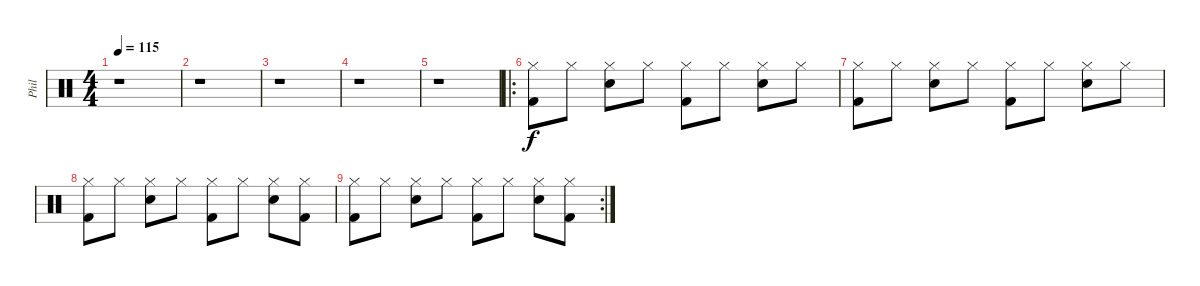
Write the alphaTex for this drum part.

\track ("Phil" "Phil") {instrument percussion}
\staff {score}
\articulation defaults
\ts (4 4)
\tempo 115
\clef neutral
\ks c
r.1{dy f} |
r.1 |
r.1 |
r.1 |
r.1 |
\ro
("Hi-Hat (closed)" "Kick (hit) 2").8 "Hi-Hat (closed)".8 ("Hi-Hat (closed)" "Snare (hit) 2").8 "Hi-Hat (closed)".8 ("Hi-Hat (closed)" "Kick (hit) 2").8 "Hi-Hat (closed)".8 ("Hi-Hat (closed)" "Snare (hit) 2").8 "Hi-Hat (closed)".8 |
("Hi-Hat (closed)" "Kick (hit) 2").8 "Hi-Hat (closed)".8 ("Hi-Hat (closed)" "Snare (hit) 2").8 "Hi-Hat (closed)".8 ("Hi-Hat (closed)" "Kick (hit) 2").8 "Hi-Hat (closed)".8 ("Hi-Hat (closed)" "Snare (hit) 2").8 "Hi-Hat (closed)".8 |
("Hi-Hat (closed)" "Kick (hit) 2").8 "Hi-Hat (closed)".8 ("Hi-Hat (closed)" "Snare (hit) 2").8 "Hi-Hat (closed)".8 ("Hi-Hat (closed)" "Kick (hit) 2").8 "Hi-Hat (closed)".8 ("Hi-Hat (closed)" "Snare (hit) 2").8 ("Hi-Hat (closed)" "Kick (hit) 2").8 |
\rc 2
("Hi-Hat (closed)" "Kick (hit) 2").8 "Hi-Hat (closed)".8 ("Hi-Hat (closed)" "Snare (hit) 2").8 "Hi-Hat (closed)".8 ("Hi-Hat (closed)" "Kick (hit) 2").8 "Hi-Hat (closed)".8 ("Hi-Hat (closed)" "Snare (hit) 2").8 ("Hi-Hat (closed)" "Kick (hit) 2").8
